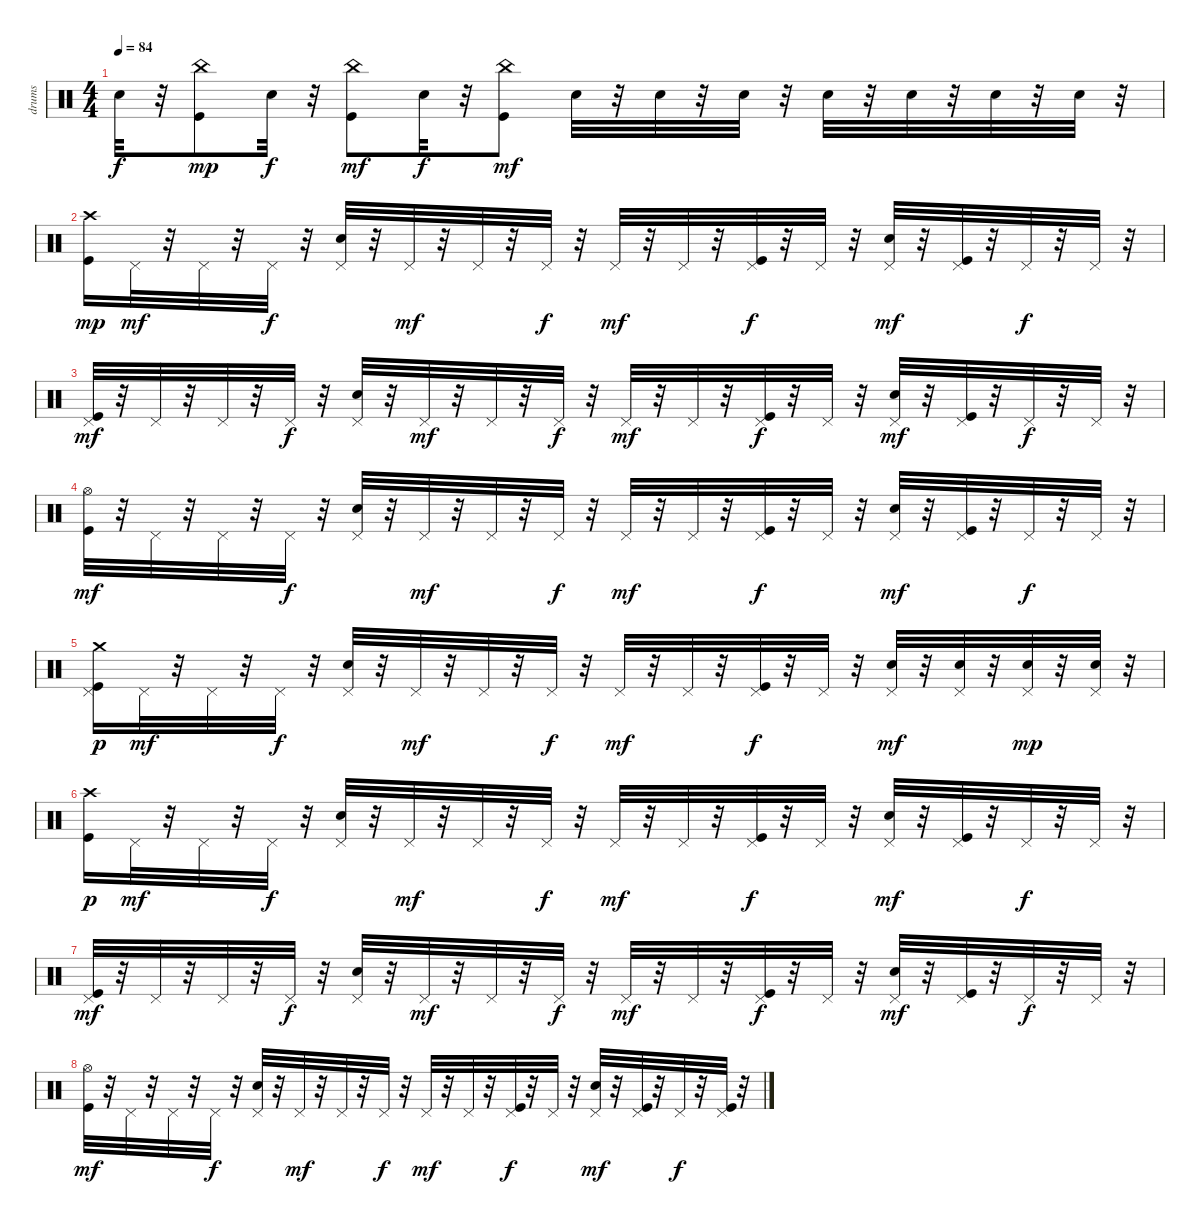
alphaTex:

\track ("drums" "drums") {instrument percussion}
\staff {score}
\articulation defaults
\ts (4 4)
\tempo 84
\clef neutral
\ks c "Snare (hit) 2".32{dy f}
r.32 ("Kick (hit)" "China (hit)").8{dy mp} "Snare (hit) 2".32{dy f} r.32 ("Kick (hit)" "China (hit)").8{dy mf} "Snare (hit) 2".32{dy f} r.32 ("Kick (hit)" "China (hit)").8{dy mf} "Snare (hit) 2".32 r.32 "Snare (hit) 2".32 r.32 "Snare (hit) 2".32 r.32 "Snare (hit) 2".32 r.32 "Snare (hit) 2".32 r.32 "Snare (hit) 2".32 r.32 "Snare (hit) 2".32 r.32 |
("Kick (hit)" "Crash high (hit)").16{dy mp} "Pedal Hi-Hat (hit)".32{dy mf} r.32 "Pedal Hi-Hat (hit)".32 r.32 "Pedal Hi-Hat (hit)".32{dy f} r.32 ("Snare (hit) 2" "Pedal Hi-Hat (hit)").32 r.32 "Pedal Hi-Hat (hit)".32{dy mf} r.32 "Pedal Hi-Hat (hit)".32 r.32 "Pedal Hi-Hat (hit)".32{dy f} r.32 "Pedal Hi-Hat (hit)".32{dy mf} r.32 "Pedal Hi-Hat (hit)".32 r.32 ("Kick (hit)" "Pedal Hi-Hat (hit)").32{dy f} r.32 "Pedal Hi-Hat (hit)".32 r.32 ("Snare (hit) 2" "Pedal Hi-Hat (hit)").32{dy mf} r.32 ("Kick (hit)" "Pedal Hi-Hat (hit)").32 r.32 "Pedal Hi-Hat (hit)".32{dy f} r.32 "Pedal Hi-Hat (hit)".32 r.32 |
("Kick (hit)" "Pedal Hi-Hat (hit)").32{dy mf} r.32 "Pedal Hi-Hat (hit)".32 r.32 "Pedal Hi-Hat (hit)".32 r.32 "Pedal Hi-Hat (hit)".32{dy f} r.32 ("Snare (hit) 2" "Pedal Hi-Hat (hit)").32 r.32 "Pedal Hi-Hat (hit)".32{dy mf} r.32 "Pedal Hi-Hat (hit)".32 r.32 "Pedal Hi-Hat (hit)".32{dy f} r.32 "Pedal Hi-Hat (hit)".32{dy mf} r.32 "Pedal Hi-Hat (hit)".32 r.32 ("Kick (hit)" "Pedal Hi-Hat (hit)").32{dy f} r.32 "Pedal Hi-Hat (hit)".32 r.32 ("Snare (hit) 2" "Pedal Hi-Hat (hit)").32{dy mf} r.32 ("Kick (hit)" "Pedal Hi-Hat (hit)").32 r.32 "Pedal Hi-Hat (hit)".32{dy f} r.32 "Pedal Hi-Hat (hit)".32 r.32 |
("Kick (hit)" "Hi-Hat (open)").32{dy mf} r.32 "Pedal Hi-Hat (hit)".32 r.32 "Pedal Hi-Hat (hit)".32 r.32 "Pedal Hi-Hat (hit)".32{dy f} r.32 ("Snare (hit) 2" "Pedal Hi-Hat (hit)").32 r.32 "Pedal Hi-Hat (hit)".32{dy mf} r.32 "Pedal Hi-Hat (hit)".32 r.32 "Pedal Hi-Hat (hit)".32{dy f} r.32 "Pedal Hi-Hat (hit)".32{dy mf} r.32 "Pedal Hi-Hat (hit)".32 r.32 ("Kick (hit)" "Pedal Hi-Hat (hit)").32{dy f} r.32 "Pedal Hi-Hat (hit)".32 r.32 ("Snare (hit) 2" "Pedal Hi-Hat (hit)").32{dy mf} r.32 ("Kick (hit)" "Pedal Hi-Hat (hit)").32 r.32 "Pedal Hi-Hat (hit)".32{dy f} r.32 "Pedal Hi-Hat (hit)".32 r.32 |
("Kick (hit)" "Pedal Hi-Hat (hit)" "Crash medium (hit)").16{dy p} "Pedal Hi-Hat (hit)".32{dy mf} r.32 "Pedal Hi-Hat (hit)".32 r.32 "Pedal Hi-Hat (hit)".32{dy f} r.32 ("Snare (hit) 2" "Pedal Hi-Hat (hit)").32 r.32 "Pedal Hi-Hat (hit)".32{dy mf} r.32 "Pedal Hi-Hat (hit)".32 r.32 "Pedal Hi-Hat (hit)".32{dy f} r.32 "Pedal Hi-Hat (hit)".32{dy mf} r.32 "Pedal Hi-Hat (hit)".32 r.32 ("Kick (hit)" "Pedal Hi-Hat (hit)").32{dy f} r.32 "Pedal Hi-Hat (hit)".32 r.32 ("Snare (hit) 2" "Pedal Hi-Hat (hit)").32{dy mf} r.32 ("Snare (hit) 2" "Pedal Hi-Hat (hit)").32 r.32 ("Snare (hit) 2" "Pedal Hi-Hat (hit)").32{dy mp} r.32 ("Snare (hit) 2" "Pedal Hi-Hat (hit)").32 r.32 |
("Kick (hit)" "Crash high (hit)").16{dy p} "Pedal Hi-Hat (hit)".32{dy mf} r.32 "Pedal Hi-Hat (hit)".32 r.32 "Pedal Hi-Hat (hit)".32{dy f} r.32 ("Snare (hit) 2" "Pedal Hi-Hat (hit)").32 r.32 "Pedal Hi-Hat (hit)".32{dy mf} r.32 "Pedal Hi-Hat (hit)".32 r.32 "Pedal Hi-Hat (hit)".32{dy f} r.32 "Pedal Hi-Hat (hit)".32{dy mf} r.32 "Pedal Hi-Hat (hit)".32 r.32 ("Kick (hit)" "Pedal Hi-Hat (hit)").32{dy f} r.32 "Pedal Hi-Hat (hit)".32 r.32 ("Snare (hit) 2" "Pedal Hi-Hat (hit)").32{dy mf} r.32 ("Kick (hit)" "Pedal Hi-Hat (hit)").32 r.32 "Pedal Hi-Hat (hit)".32{dy f} r.32 "Pedal Hi-Hat (hit)".32 r.32 |
("Kick (hit)" "Pedal Hi-Hat (hit)").32{dy mf} r.32 "Pedal Hi-Hat (hit)".32 r.32 "Pedal Hi-Hat (hit)".32 r.32 "Pedal Hi-Hat (hit)".32{dy f} r.32 ("Snare (hit) 2" "Pedal Hi-Hat (hit)").32 r.32 "Pedal Hi-Hat (hit)".32{dy mf} r.32 "Pedal Hi-Hat (hit)".32 r.32 "Pedal Hi-Hat (hit)".32{dy f} r.32 "Pedal Hi-Hat (hit)".32{dy mf} r.32 "Pedal Hi-Hat (hit)".32 r.32 ("Kick (hit)" "Pedal Hi-Hat (hit)").32{dy f} r.32 "Pedal Hi-Hat (hit)".32 r.32 ("Snare (hit) 2" "Pedal Hi-Hat (hit)").32{dy mf} r.32 ("Kick (hit)" "Pedal Hi-Hat (hit)").32 r.32 "Pedal Hi-Hat (hit)".32{dy f} r.32 "Pedal Hi-Hat (hit)".32 r.32 |
("Kick (hit)" "Hi-Hat (open)").32{dy mf} r.32 "Pedal Hi-Hat (hit)".32 r.32 "Pedal Hi-Hat (hit)".32 r.32 "Pedal Hi-Hat (hit)".32{dy f} r.32 ("Snare (hit) 2" "Pedal Hi-Hat (hit)").32 r.32 "Pedal Hi-Hat (hit)".32{dy mf} r.32 "Pedal Hi-Hat (hit)".32 r.32 "Pedal Hi-Hat (hit)".32{dy f} r.32 "Pedal Hi-Hat (hit)".32{dy mf} r.32 "Pedal Hi-Hat (hit)".32 r.32 ("Kick (hit)" "Pedal Hi-Hat (hit)").32{dy f} r.32 "Pedal Hi-Hat (hit)".32 r.32 ("Snare (hit) 2" "Pedal Hi-Hat (hit)").32{dy mf} r.32 ("Kick (hit)" "Pedal Hi-Hat (hit)").32 r.32 "Pedal Hi-Hat (hit)".32{dy f} r.32 ("Kick (hit)" "Pedal Hi-Hat (hit)").32 r.32
